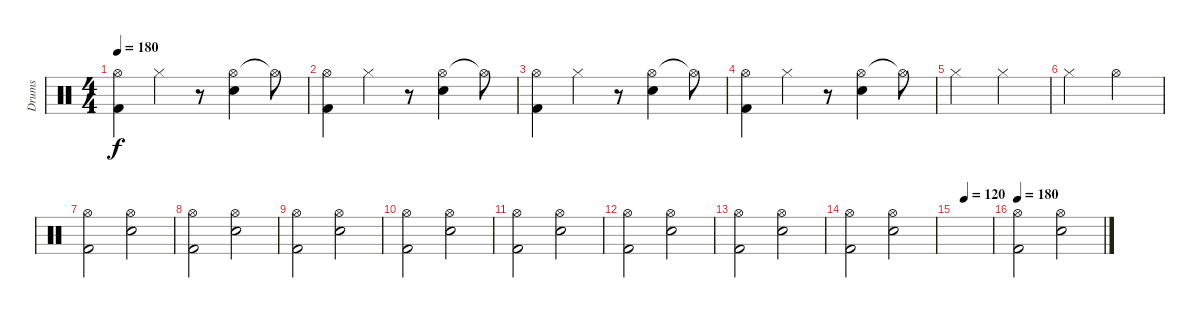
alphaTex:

\track ("Drums" "Drums") {instrument percussion}
\staff {score}
\articulation defaults
\ts (4 4)
\tempo 180
\clef neutral
\ks c
("Hi-Hat (open)" "Kick (hit) 2").4{dy f} "Hi-Hat (closed)".4 r.8 ("Hi-Hat (open)" "Electric Snare (hit)").4 "Hi-Hat (open)"{t}.8 |
("Hi-Hat (open)" "Kick (hit) 2").4 "Hi-Hat (closed)".4 r.8 ("Hi-Hat (open)" "Electric Snare (hit)").4 "Hi-Hat (open)"{t}.8 |
("Hi-Hat (open)" "Kick (hit) 2").4 "Hi-Hat (closed)".4 r.8 ("Hi-Hat (open)" "Electric Snare (hit)").4 "Hi-Hat (open)"{t}.8 |
("Hi-Hat (open)" "Kick (hit) 2").4 "Hi-Hat (closed)".4 r.8 ("Hi-Hat (open)" "Electric Snare (hit)").4 "Hi-Hat (open)"{t}.8 |
"Hi-Hat (closed)".2 "Hi-Hat (closed)".2 |
"Hi-Hat (closed)".2 "Hi-Hat (open)".2 |
("Hi-Hat (open)" "Kick (hit) 2").2 ("Hi-Hat (open)" "Electric Snare (hit)").2 |
("Hi-Hat (open)" "Kick (hit) 2").2 ("Hi-Hat (open)" "Electric Snare (hit)").2 |
("Hi-Hat (open)" "Kick (hit) 2").2 ("Hi-Hat (open)" "Electric Snare (hit)").2 |
("Hi-Hat (open)" "Kick (hit) 2").2 ("Hi-Hat (open)" "Electric Snare (hit)").2 |
("Hi-Hat (open)" "Kick (hit) 2").2 ("Hi-Hat (open)" "Electric Snare (hit)").2 |
("Hi-Hat (open)" "Kick (hit) 2").2 ("Hi-Hat (open)" "Electric Snare (hit)").2 |
("Hi-Hat (open)" "Kick (hit) 2").2 ("Hi-Hat (open)" "Electric Snare (hit)").2 |
("Hi-Hat (open)" "Kick (hit) 2").2 ("Hi-Hat (open)" "Electric Snare (hit)").2 |
\tempo (120 0.25)
|
\tempo 180
("Hi-Hat (open)" "Kick (hit) 2").2 ("Hi-Hat (open)" "Electric Snare (hit)").2
